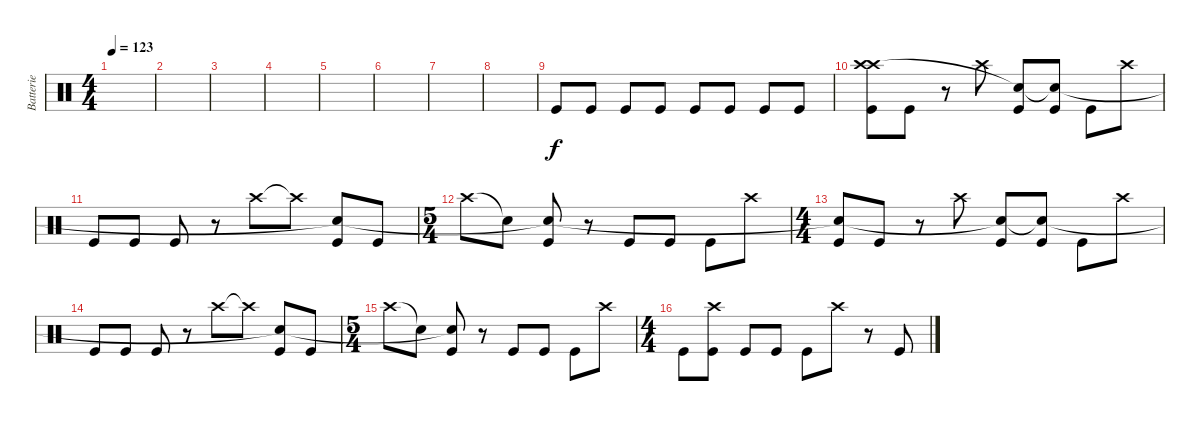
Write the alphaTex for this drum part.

\track ("Batterie" "Batterie") {instrument percussion}
\staff {score}
\articulation defaults
\ts (4 4)
\tempo 123
\clef neutral
\ks c
|
|
|
|
|
|
|
|
"Kick (hit)".8 "Kick (hit)".8 "Kick (hit)".8 "Kick (hit)".8 "Kick (hit)".8 "Kick (hit)".8 "Kick (hit)".8 "Kick (hit)".8 |
("Kick (hit)" "Crash high (hit)" "Crash high (hit)").8 "Kick (hit)".8 r.8 "Crash high (hit)".8 ("Kick (hit)" "Snare (hit)"{t}).8 ("Kick (hit)" "Snare (hit)"{t}).8 "Kick (hit)".8 "Crash high (hit)".8 |
"Kick (hit)".8 "Kick (hit)".8 "Kick (hit)".8 r.8 "Crash high (hit)".8 "Crash high (hit)"{t}.8 ("Kick (hit)" "Snare (hit)"{t}).8 "Kick (hit)".8 |
\ts (5 4)
"Crash high (hit)".8 "Snare (hit)"{t}.8 ("Kick (hit)" "Snare (hit)"{t}).8 r.8 "Kick (hit)".8 "Kick (hit)".8 "Kick (hit)".8 "Crash high (hit)".8 |
\ts (4 4)
("Kick (hit)" "Snare (hit)"{t}).8 "Kick (hit)".8 r.8 "Crash high (hit)".8 ("Kick (hit)" "Snare (hit)"{t}).8 ("Kick (hit)" "Snare (hit)"{t}).8 "Kick (hit)".8 "Crash high (hit)".8 |
"Kick (hit)".8 "Kick (hit)".8 "Kick (hit)".8 r.8 "Crash high (hit)".8 "Crash high (hit)"{t}.8 ("Kick (hit)" "Snare (hit)"{t}).8 "Kick (hit)".8 |
\ts (5 4)
"Crash high (hit)".8 "Snare (hit)"{t}.8 ("Kick (hit)" "Snare (hit)"{t}).8 r.8 "Kick (hit)".8 "Kick (hit)".8 "Kick (hit)".8 "Crash high (hit)".8 |
\ts (4 4)
"Kick (hit)".8 ("Kick (hit)" "Crash high (hit)").8 "Kick (hit)".8 "Kick (hit)".8 "Kick (hit)".8 "Crash high (hit)".8 r.8 "Kick (hit)".8
